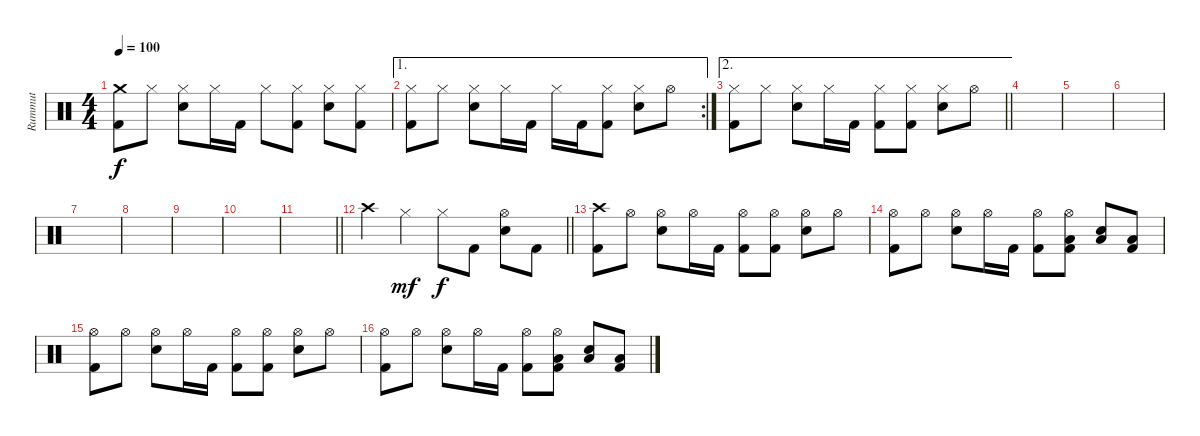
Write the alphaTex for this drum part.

\track ("Rummut" "Rummut") {instrument percussion}
\staff {score}
\articulation defaults
\ts (4 4)
\tempo 100
\clef neutral
\ks c
("Crash medium (hit)" "Kick (hit) 2").8{dy f} "Hi-Hat (closed)".8 ("Hi-Hat (closed)" "Snare (hit) 2").8 "Hi-Hat (closed)".16 "Kick (hit) 2".16 "Hi-Hat (closed)".8 ("Hi-Hat (closed)" "Kick (hit) 2").8 ("Hi-Hat (closed)" "Snare (hit) 2").8 ("Hi-Hat (closed)" "Kick (hit) 2").8 |
\ae 1
\rc 2
("Hi-Hat (closed)" "Kick (hit) 2").8 "Hi-Hat (closed)".8 ("Hi-Hat (closed)" "Snare (hit) 2").8 "Hi-Hat (closed)".16 "Kick (hit) 2".16 "Hi-Hat (closed)".16 "Kick (hit) 2".16 ("Hi-Hat (closed)" "Kick (hit) 2").8 ("Hi-Hat (closed)" "Snare (hit) 2").8 "Hi-Hat (open)".8 |
\ae 2
\barLineRight lightlight
("Hi-Hat (closed)" "Kick (hit) 2").8 "Hi-Hat (closed)".8 ("Hi-Hat (closed)" "Snare (hit) 2").8 "Hi-Hat (closed)".16 "Kick (hit) 2".16 ("Hi-Hat (closed)" "Kick (hit) 2").8 ("Hi-Hat (closed)" "Kick (hit) 2").8 ("Hi-Hat (closed)" "Snare (hit) 2").8 "Hi-Hat (open)".8 |
|
|
|
|
|
|
|
\barLineRight lightlight
|
\barLineRight lightlight "Crash high (hit)".4 "Hi-Hat (closed)".4{dy mf} "Hi-Hat (closed)".8{dy f} "Kick (hit) 2".8
("Hi-Hat (open)" "Snare (hit) 2").8 "Kick (hit) 2".8 |
("Crash high (hit)" "Kick (hit) 2").8 "Hi-Hat (open)".8 ("Hi-Hat (open)" "Snare (hit) 2").8 "Hi-Hat (open)".16 "Kick (hit) 2".16 ("Hi-Hat (open)" "Kick (hit) 2").8 ("Hi-Hat (open)" "Kick (hit) 2").8 ("Hi-Hat (open)" "Snare (hit) 2").8 "Hi-Hat (open)".8 |
("Hi-Hat (open)" "Kick (hit) 2").8 "Hi-Hat (open)".8 ("Hi-Hat (open)" "Snare (hit) 2").8 "Hi-Hat (open)".16 "Kick (hit) 2".16 ("Hi-Hat (open)" "Kick (hit) 2").8 ("Hi-Hat (open)" "Low Floor Tom (hit)" "Kick (hit) 2").8 ("Snare (hit) 2" "Low Floor Tom (hit)").8 ("Low Floor Tom (hit)" "Kick (hit) 2").8 |
("Hi-Hat (open)" "Kick (hit) 2").8 "Hi-Hat (open)".8 ("Hi-Hat (open)" "Snare (hit) 2").8 "Hi-Hat (open)".16 "Kick (hit) 2".16 ("Hi-Hat (open)" "Kick (hit) 2").8 ("Hi-Hat (open)" "Kick (hit) 2").8 ("Hi-Hat (open)" "Snare (hit) 2").8 "Hi-Hat (open)".8 |
("Hi-Hat (open)" "Kick (hit) 2").8 "Hi-Hat (open)".8 ("Hi-Hat (open)" "Snare (hit) 2").8 "Hi-Hat (open)".16 "Kick (hit) 2".16 ("Hi-Hat (open)" "Kick (hit) 2").8 ("Hi-Hat (open)" "Low Floor Tom (hit)" "Kick (hit) 2").8 ("Snare (hit) 2" "Low Floor Tom (hit)").8 ("Low Floor Tom (hit)" "Kick (hit) 2").8
